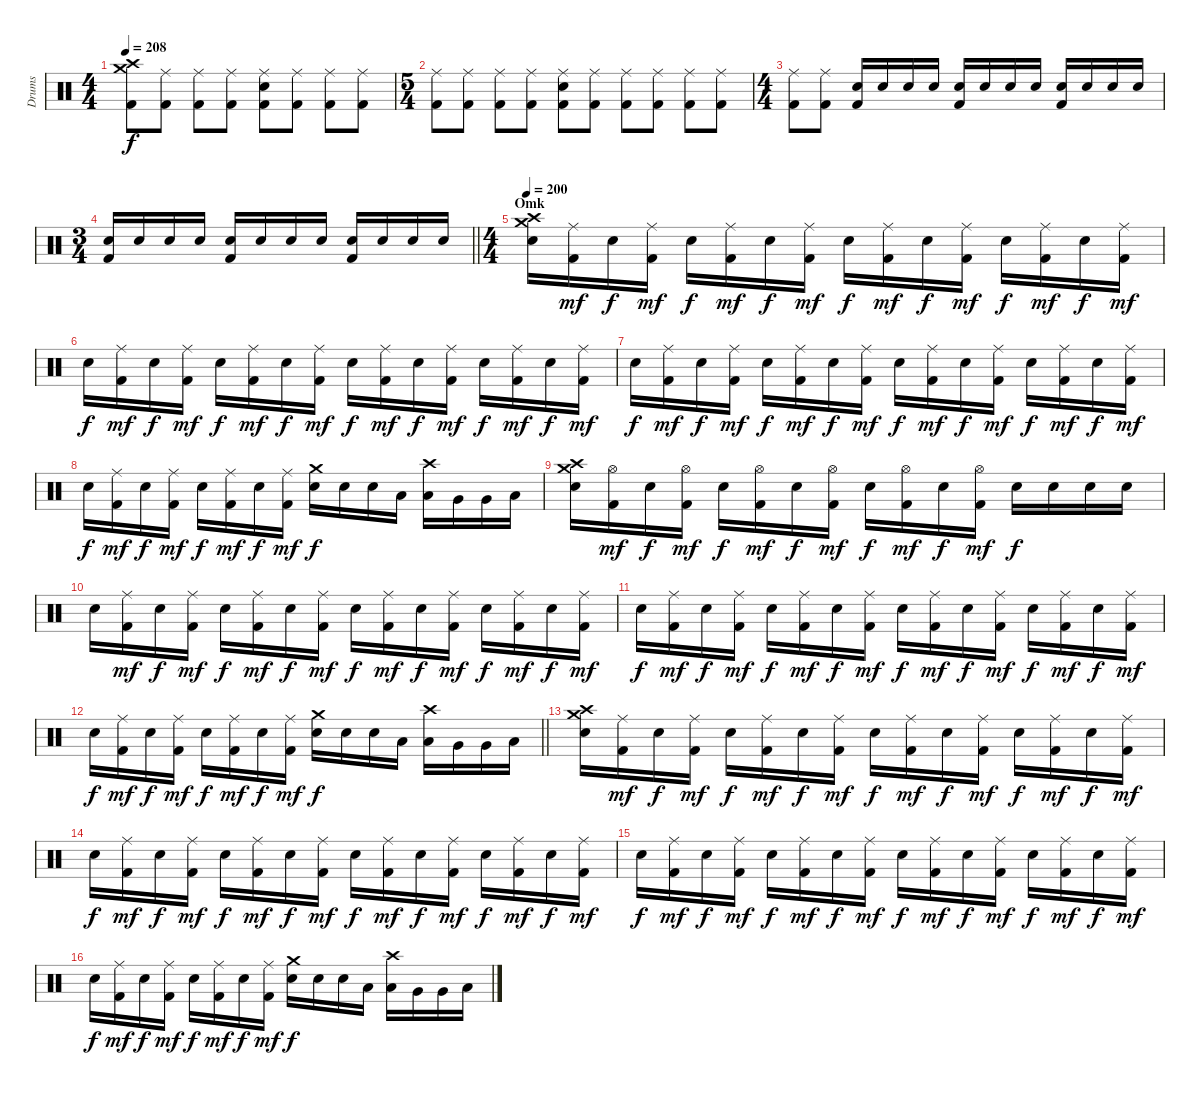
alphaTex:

\track ("Drums" "Drums") {instrument percussion}
\staff {score}
\articulation defaults
\ts (4 4)
\tempo 208
\clef neutral
\ks c
("Crash medium (hit)" "Crash high (hit)" "Kick (hit) 2").8{dy f} ("Ride (middle)" "Kick (hit) 2").8 ("Ride (middle)" "Kick (hit) 2").8 ("Ride (middle)" "Kick (hit) 2").8 ("Ride (middle)" "Snare (hit) 2" "Kick (hit) 2").8 ("Ride (middle)" "Kick (hit) 2").8 ("Ride (middle)" "Kick (hit) 2").8 ("Ride (middle)" "Kick (hit) 2").8 |
\ts (5 4)
("Ride (middle)" "Kick (hit) 2").8 ("Ride (middle)" "Kick (hit) 2").8 ("Ride (middle)" "Kick (hit) 2").8 ("Ride (middle)" "Kick (hit) 2").8 ("Ride (middle)" "Snare (hit) 2" "Kick (hit) 2").8 ("Ride (middle)" "Kick (hit) 2").8 ("Ride (middle)" "Kick (hit) 2").8 ("Ride (middle)" "Kick (hit) 2").8 ("Ride (middle)" "Kick (hit) 2").8 ("Ride (middle)" "Kick (hit) 2").8 |
\ts (4 4)
("Ride (middle)" "Kick (hit) 2").8 ("Ride (middle)" "Kick (hit) 2").8 ("Electric Snare (hit)" "Kick (hit) 2").16 "Electric Snare (hit)".16 "Electric Snare (hit)".16 "Electric Snare (hit)".16 ("Electric Snare (hit)" "Kick (hit) 2").16 "Electric Snare (hit)".16 "Electric Snare (hit)".16 "Electric Snare (hit)".16 ("Electric Snare (hit)" "Kick (hit) 2").16 "Electric Snare (hit)".16 "Electric Snare (hit)".16 "Electric Snare (hit)".16 |
\ts (3 4)
\barLineRight lightlight
("Electric Snare (hit)" "Kick (hit) 2").16 "Electric Snare (hit)".16 "Electric Snare (hit)".16 "Electric Snare (hit)".16 ("Electric Snare (hit)" "Kick (hit) 2").16 "Electric Snare (hit)".16 "Electric Snare (hit)".16 "Electric Snare (hit)".16 ("Electric Snare (hit)" "Kick (hit) 2").16 "Electric Snare (hit)".16 "Electric Snare (hit)".16 "Electric Snare (hit)".16 |
\ts (4 4)
\section ("" "Omk")
\tempo 195
\tempo 200
("Crash medium (hit)" "Crash high (hit)" "Snare (hit) 2").16 ("Ride (middle)" "Kick (hit) 2").16{dy mf} "Snare (hit) 2".16{dy f} ("Ride (middle)" "Kick (hit) 2").16{dy mf} "Snare (hit) 2".16{dy f} ("Ride (middle)" "Kick (hit) 2").16{dy mf} "Snare (hit) 2".16{dy f} ("Ride (middle)" "Kick (hit) 2").16{dy mf} "Snare (hit) 2".16{dy f} ("Ride (middle)" "Kick (hit) 2").16{dy mf} "Snare (hit) 2".16{dy f} ("Ride (middle)" "Kick (hit) 2").16{dy mf} "Snare (hit) 2".16{dy f} ("Ride (middle)" "Kick (hit) 2").16{dy mf} "Snare (hit) 2".16{dy f} ("Ride (middle)" "Kick (hit) 2").16{dy mf} |
"Snare (hit) 2".16{dy f} ("Ride (middle)" "Kick (hit) 2").16{dy mf} "Snare (hit) 2".16{dy f} ("Ride (middle)" "Kick (hit) 2").16{dy mf} "Snare (hit) 2".16{dy f} ("Ride (middle)" "Kick (hit) 2").16{dy mf} "Snare (hit) 2".16{dy f} ("Ride (middle)" "Kick (hit) 2").16{dy mf} "Snare (hit) 2".16{dy f} ("Ride (middle)" "Kick (hit) 2").16{dy mf} "Snare (hit) 2".16{dy f} ("Ride (middle)" "Kick (hit) 2").16{dy mf} "Snare (hit) 2".16{dy f} ("Ride (middle)" "Kick (hit) 2").16{dy mf} "Snare (hit) 2".16{dy f} ("Ride (middle)" "Kick (hit) 2").16{dy mf} |
"Snare (hit) 2".16{dy f} ("Ride (middle)" "Kick (hit) 2").16{dy mf} "Snare (hit) 2".16{dy f} ("Ride (middle)" "Kick (hit) 2").16{dy mf} "Snare (hit) 2".16{dy f} ("Ride (middle)" "Kick (hit) 2").16{dy mf} "Snare (hit) 2".16{dy f} ("Ride (middle)" "Kick (hit) 2").16{dy mf} "Snare (hit) 2".16{dy f} ("Ride (middle)" "Kick (hit) 2").16{dy mf} "Snare (hit) 2".16{dy f} ("Ride (middle)" "Kick (hit) 2").16{dy mf} "Snare (hit) 2".16{dy f} ("Ride (middle)" "Kick (hit) 2").16{dy mf} "Snare (hit) 2".16{dy f} ("Ride (middle)" "Kick (hit) 2").16{dy mf} |
"Snare (hit) 2".16{dy f} ("Ride (middle)" "Kick (hit) 2").16{dy mf} "Snare (hit) 2".16{dy f} ("Ride (middle)" "Kick (hit) 2").16{dy mf} "Snare (hit) 2".16{dy f} ("Ride (middle)" "Kick (hit) 2").16{dy mf} "Snare (hit) 2".16{dy f} ("Ride (middle)" "Kick (hit) 2").16{dy mf} ("Crash medium (hit)" "Snare (hit) 2").16{dy f} "Snare (hit) 2".16 "Snare (hit) 2".16 "Low Tom (hit)".16 ("Crash high (hit)" "Low Tom (hit)").16 "Very Low Tom (hit)".16 "Very Low Tom (hit)".16 "Low Floor Tom (hit)".16 |
("Crash medium (hit)" "Crash high (hit)" "Snare (hit) 2").16 ("Hi-Hat (open)" "Kick (hit) 2").16{dy mf} "Snare (hit) 2".16{dy f} ("Hi-Hat (open)" "Kick (hit) 2").16{dy mf} "Snare (hit) 2".16{dy f} ("Hi-Hat (open)" "Kick (hit) 2").16{dy mf} "Snare (hit) 2".16{dy f} ("Hi-Hat (open)" "Kick (hit) 2").16{dy mf} "Snare (hit) 2".16{dy f} ("Hi-Hat (open)" "Kick (hit) 2").16{dy mf} "Snare (hit) 2".16{dy f} ("Hi-Hat (open)" "Kick (hit) 2").16{dy mf} "Snare (hit) 2".16{dy f} "Snare (hit) 2".16 "Snare (hit) 2".16 "Snare (hit) 2".16 |
"Snare (hit) 2".16 ("Ride (middle)" "Kick (hit) 2").16{dy mf} "Snare (hit) 2".16{dy f} ("Ride (middle)" "Kick (hit) 2").16{dy mf} "Snare (hit) 2".16{dy f} ("Ride (middle)" "Kick (hit) 2").16{dy mf} "Snare (hit) 2".16{dy f} ("Ride (middle)" "Kick (hit) 2").16{dy mf} "Snare (hit) 2".16{dy f} ("Ride (middle)" "Kick (hit) 2").16{dy mf} "Snare (hit) 2".16{dy f} ("Ride (middle)" "Kick (hit) 2").16{dy mf} "Snare (hit) 2".16{dy f} ("Ride (middle)" "Kick (hit) 2").16{dy mf} "Snare (hit) 2".16{dy f} ("Ride (middle)" "Kick (hit) 2").16{dy mf} |
"Snare (hit) 2".16{dy f} ("Ride (middle)" "Kick (hit) 2").16{dy mf} "Snare (hit) 2".16{dy f} ("Ride (middle)" "Kick (hit) 2").16{dy mf} "Snare (hit) 2".16{dy f} ("Ride (middle)" "Kick (hit) 2").16{dy mf} "Snare (hit) 2".16{dy f} ("Ride (middle)" "Kick (hit) 2").16{dy mf} "Snare (hit) 2".16{dy f} ("Ride (middle)" "Kick (hit) 2").16{dy mf} "Snare (hit) 2".16{dy f} ("Ride (middle)" "Kick (hit) 2").16{dy mf} "Snare (hit) 2".16{dy f} ("Ride (middle)" "Kick (hit) 2").16{dy mf} "Snare (hit) 2".16{dy f} ("Ride (middle)" "Kick (hit) 2").16{dy mf} |
\barLineRight lightlight "Snare (hit) 2".16{dy f}
("Ride (middle)" "Kick (hit) 2").16{dy mf} "Snare (hit) 2".16{dy f} ("Ride (middle)" "Kick (hit) 2").16{dy mf} "Snare (hit) 2".16{dy f} ("Ride (middle)" "Kick (hit) 2").16{dy mf} "Snare (hit) 2".16{dy f} ("Ride (middle)" "Kick (hit) 2").16{dy mf} ("Crash medium (hit)" "Snare (hit) 2").16{dy f} "Snare (hit) 2".16 "Snare (hit) 2".16 "Low Tom (hit)".16 ("Crash high (hit)" "Low Tom (hit)").16 "Very Low Tom (hit)".16 "Very Low Tom (hit)".16 "Low Floor Tom (hit)".16 |
("Crash medium (hit)" "Crash high (hit)" "Snare (hit) 2").16 ("Ride (middle)" "Kick (hit) 2").16{dy mf} "Snare (hit) 2".16{dy f} ("Ride (middle)" "Kick (hit) 2").16{dy mf} "Snare (hit) 2".16{dy f} ("Ride (middle)" "Kick (hit) 2").16{dy mf} "Snare (hit) 2".16{dy f} ("Ride (middle)" "Kick (hit) 2").16{dy mf} "Snare (hit) 2".16{dy f} ("Ride (middle)" "Kick (hit) 2").16{dy mf} "Snare (hit) 2".16{dy f} ("Ride (middle)" "Kick (hit) 2").16{dy mf} "Snare (hit) 2".16{dy f} ("Ride (middle)" "Kick (hit) 2").16{dy mf} "Snare (hit) 2".16{dy f} ("Ride (middle)" "Kick (hit) 2").16{dy mf} |
"Snare (hit) 2".16{dy f} ("Ride (middle)" "Kick (hit) 2").16{dy mf} "Snare (hit) 2".16{dy f} ("Ride (middle)" "Kick (hit) 2").16{dy mf} "Snare (hit) 2".16{dy f} ("Ride (middle)" "Kick (hit) 2").16{dy mf} "Snare (hit) 2".16{dy f} ("Ride (middle)" "Kick (hit) 2").16{dy mf} "Snare (hit) 2".16{dy f} ("Ride (middle)" "Kick (hit) 2").16{dy mf} "Snare (hit) 2".16{dy f} ("Ride (middle)" "Kick (hit) 2").16{dy mf} "Snare (hit) 2".16{dy f} ("Ride (middle)" "Kick (hit) 2").16{dy mf} "Snare (hit) 2".16{dy f} ("Ride (middle)" "Kick (hit) 2").16{dy mf} |
"Snare (hit) 2".16{dy f} ("Ride (middle)" "Kick (hit) 2").16{dy mf} "Snare (hit) 2".16{dy f} ("Ride (middle)" "Kick (hit) 2").16{dy mf} "Snare (hit) 2".16{dy f} ("Ride (middle)" "Kick (hit) 2").16{dy mf} "Snare (hit) 2".16{dy f} ("Ride (middle)" "Kick (hit) 2").16{dy mf} "Snare (hit) 2".16{dy f} ("Ride (middle)" "Kick (hit) 2").16{dy mf} "Snare (hit) 2".16{dy f} ("Ride (middle)" "Kick (hit) 2").16{dy mf} "Snare (hit) 2".16{dy f} ("Ride (middle)" "Kick (hit) 2").16{dy mf} "Snare (hit) 2".16{dy f} ("Ride (middle)" "Kick (hit) 2").16{dy mf} |
"Snare (hit) 2".16{dy f} ("Ride (middle)" "Kick (hit) 2").16{dy mf} "Snare (hit) 2".16{dy f} ("Ride (middle)" "Kick (hit) 2").16{dy mf} "Snare (hit) 2".16{dy f} ("Ride (middle)" "Kick (hit) 2").16{dy mf} "Snare (hit) 2".16{dy f} ("Ride (middle)" "Kick (hit) 2").16{dy mf} ("Crash medium (hit)" "Snare (hit) 2").16{dy f} "Snare (hit) 2".16 "Snare (hit) 2".16 "Low Tom (hit)".16 ("Crash high (hit)" "Low Tom (hit)").16 "Very Low Tom (hit)".16 "Very Low Tom (hit)".16 "Low Floor Tom (hit)".16
